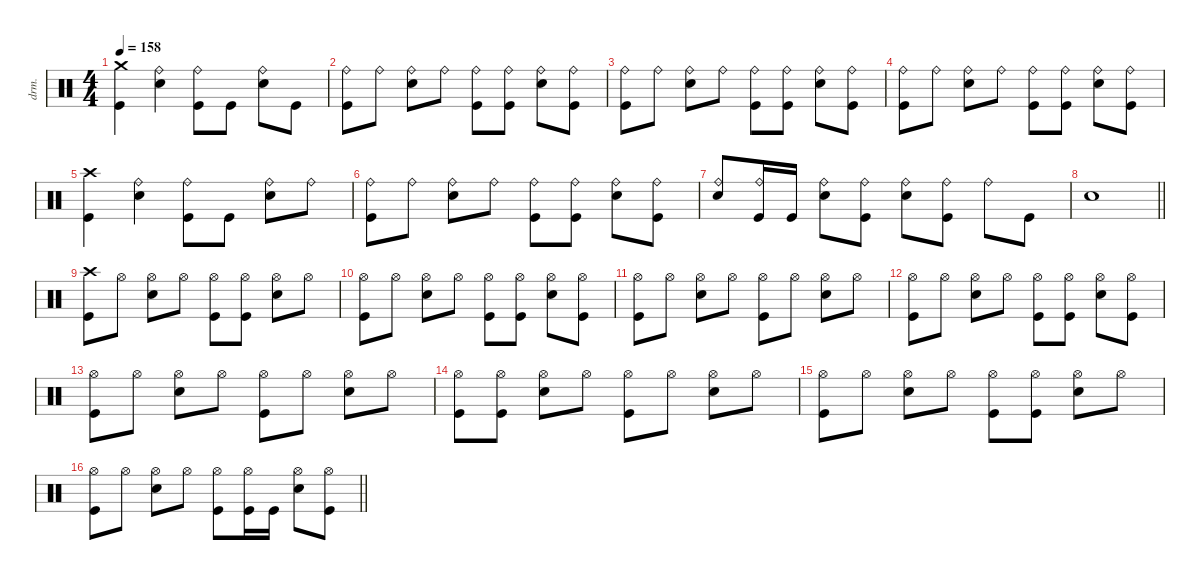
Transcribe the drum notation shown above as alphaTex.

\defaultSystemsLayout 4
\hideDynamics
\bracketExtendMode nobrackets
\otherSystemsTrackNameOrientation horizontal
\track ("Menza" "drm.") {instrument percussion}
\staff {score}
\articulation defaults
\ts (4 4)
\tempo 158
\clef neutral
\ks c
("Crash medium (hit)" "Kick (hit)").4{dy f beam Down} ("Ride (bell)" "Snare (hit) 2").4{beam Down} ("Ride (bell)" "Kick (hit)").8{beam Down} "Kick (hit)".8{beam Down} ("Ride (bell)" "Snare (hit) 2").8{beam Down} "Kick (hit)".8{beam Down} |
("Ride (bell)" "Kick (hit)").8{beam Down} "Ride (bell)".8{beam Down} ("Ride (bell)" "Snare (hit) 2").8{beam Down} "Ride (bell)".8{beam Down} ("Ride (bell)" "Kick (hit)").8{beam Down} ("Ride (bell)" "Kick (hit)").8{beam Down} ("Ride (bell)" "Snare (hit) 2").8{beam Down} ("Ride (bell)" "Kick (hit)").8{beam Down} |
("Ride (bell)" "Kick (hit)").8{beam Down} "Ride (bell)".8{beam Down} ("Ride (bell)" "Snare (hit) 2").8{beam Down} "Ride (bell)".8{beam Down} ("Ride (bell)" "Kick (hit)").8{beam Down} ("Ride (bell)" "Kick (hit)").8{beam Down} ("Ride (bell)" "Snare (hit) 2").8{beam Down} ("Ride (bell)" "Kick (hit)").8{beam Down} |
("Ride (bell)" "Kick (hit)").8{beam Down} "Ride (bell)".8{beam Down} ("Ride (bell)" "Snare (hit) 2").8{beam Down} "Ride (bell)".8{beam Down} ("Ride (bell)" "Kick (hit)").8{beam Down} ("Ride (bell)" "Kick (hit)").8{beam Down} ("Ride (bell)" "Snare (hit) 2").8{beam Down} ("Ride (bell)" "Kick (hit)").8{beam Down} |
("Crash high (hit)" "Kick (hit)").4{beam Down} ("Ride (bell)" "Snare (hit) 2").4{beam Down} ("Ride (bell)" "Kick (hit)").8{beam Down} "Kick (hit)".8{beam Down} ("Ride (bell)" "Snare (hit) 2").8{beam Down} "Ride (bell)".8{beam Down} |
("Ride (bell)" "Kick (hit)").8{beam Down} "Ride (bell)".8{beam Down} ("Ride (bell)" "Snare (hit) 2").8{beam Down} "Ride (bell)".8{beam Down} ("Ride (bell)" "Kick (hit)").8{beam Down} ("Ride (bell)" "Kick (hit)").8{beam Down} ("Ride (bell)" "Snare (hit) 2").8{beam Down} ("Ride (bell)" "Kick (hit)").8{beam Down} |
("Ride (bell)" "Snare (hit) 2").8{beam Up} ("Ride (bell)" "Kick (hit)").16{beam Up} "Kick (hit)".16{beam Up} ("Ride (bell)" "Snare (hit) 2").8{beam Down} ("Ride (bell)" "Kick (hit)").8{beam Down} ("Ride (bell)" "Snare (hit) 2").8{beam Down} ("Ride (bell)" "Kick (hit)").8{beam Down} "Ride (bell)".8{beam Down} "Kick (hit)".8{beam Down} |
\barLineRight lightlight "Snare (hit) 2".1{beam Down}
|
("Crash high (hit)" "Kick (hit)").8{beam Down} "Hi-Hat (open)".8{beam Down} ("Hi-Hat (open)" "Snare (hit) 2").8{beam Down} "Hi-Hat (open)".8{beam Down} ("Hi-Hat (open)" "Kick (hit)").8{beam Down} ("Hi-Hat (open)" "Kick (hit)").8{beam Down} ("Hi-Hat (open)" "Snare (hit) 2").8{beam Down} "Hi-Hat (open)".8{beam Down} |
("Hi-Hat (open)" "Kick (hit)").8{beam Down} "Hi-Hat (open)".8{beam Down} ("Hi-Hat (open)" "Snare (hit) 2").8{beam Down} "Hi-Hat (open)".8{beam Down} ("Hi-Hat (open)" "Kick (hit)").8{beam Down} ("Hi-Hat (open)" "Kick (hit)").8{beam Down} ("Hi-Hat (open)" "Snare (hit) 2").8{beam Down} ("Hi-Hat (open)" "Kick (hit)").8{beam Down} |
("Hi-Hat (open)" "Kick (hit)").8{beam Down} "Hi-Hat (open)".8{beam Down} ("Hi-Hat (open)" "Snare (hit) 2").8{beam Down} "Hi-Hat (open)".8{beam Down} ("Hi-Hat (open)" "Kick (hit)").8{beam Down} "Hi-Hat (open)".8{beam Down} ("Hi-Hat (open)" "Snare (hit) 2").8{beam Down} "Hi-Hat (open)".8{beam Down} |
("Hi-Hat (open)" "Kick (hit)").8{beam Down} "Hi-Hat (open)".8{beam Down} ("Hi-Hat (open)" "Snare (hit) 2").8{beam Down} "Hi-Hat (open)".8{beam Down} ("Hi-Hat (open)" "Kick (hit)").8{beam Down} ("Hi-Hat (open)" "Kick (hit)").8{beam Down} ("Hi-Hat (open)" "Snare (hit) 2").8{beam Down} ("Hi-Hat (open)" "Kick (hit)").8{beam Down} |
("Hi-Hat (open)" "Kick (hit)").8{beam Down} "Hi-Hat (open)".8{beam Down} ("Hi-Hat (open)" "Snare (hit) 2").8{beam Down} "Hi-Hat (open)".8{beam Down} ("Hi-Hat (open)" "Kick (hit)").8{beam Down} "Hi-Hat (open)".8{beam Down} ("Hi-Hat (open)" "Snare (hit) 2").8{beam Down} "Hi-Hat (open)".8{beam Down} |
("Hi-Hat (open)" "Kick (hit)").8{beam Down} ("Hi-Hat (open)" "Kick (hit)").8{beam Down} ("Hi-Hat (open)" "Snare (hit) 2").8{beam Down} "Hi-Hat (open)".8{beam Down} ("Hi-Hat (open)" "Kick (hit)").8{beam Down} "Hi-Hat (open)".8{beam Down} ("Hi-Hat (open)" "Snare (hit) 2").8{beam Down} "Hi-Hat (open)".8{beam Down} |
("Hi-Hat (open)" "Kick (hit)").8{beam Down} "Hi-Hat (open)".8{beam Down} ("Hi-Hat (open)" "Snare (hit) 2").8{beam Down} "Hi-Hat (open)".8{beam Down} ("Hi-Hat (open)" "Kick (hit)").8{beam Down} ("Hi-Hat (open)" "Kick (hit)").8{beam Down} ("Hi-Hat (open)" "Snare (hit) 2").8{beam Down} "Hi-Hat (open)".8{beam Down} |
\barLineRight lightlight
("Hi-Hat (open)" "Kick (hit)").8{beam Down} "Hi-Hat (open)".8{beam Down} ("Hi-Hat (open)" "Snare (hit) 2").8{beam Down} "Hi-Hat (open)".8{beam Down} ("Hi-Hat (open)" "Kick (hit)").8{beam Down} ("Hi-Hat (open)" "Kick (hit)").16{beam Down} "Kick (hit)".16{beam Down} ("Hi-Hat (open)" "Snare (hit) 2").8{beam Down} ("Hi-Hat (open)" "Kick (hit)").8{beam Down}
